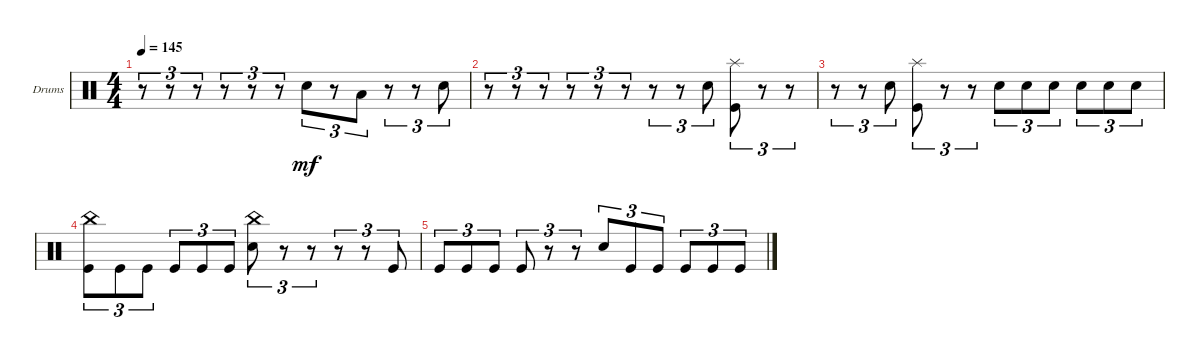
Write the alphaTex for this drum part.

\bracketExtendMode groupsimilarinstruments
\firstSystemTrackNameOrientation horizontal
\otherSystemsTrackNameOrientation horizontal
\track ("Drumkit" "Drums") {instrument percussion}
\staff {score}
\articulation defaults
\ts (4 4)
\tempo 145
\clef neutral
\ks c
r.8{tu (3 2) dy mf} r.8{tu (3 2)} r.8{tu (3 2)} r.8{tu (3 2)} r.8{tu (3 2)} r.8{tu (3 2)} "Snare (hit) 2".8{tu (3 2)} r.8{tu (3 2)} "Low Tom (hit)".8{tu (3 2)} r.8{tu (3 2)} r.8{tu (3 2)} "Snare (hit) 2".8{tu (3 2)} |
r.8{tu (3 2)} r.8{tu (3 2)} r.8{tu (3 2)} r.8{tu (3 2)} r.8{tu (3 2)} r.8{tu (3 2)} r.8{tu (3 2)} r.8{tu (3 2)} "Snare (hit) 2".8{tu (3 2)} ("Kick (hit)" "Splash (hit)").8{tu (3 2)} r.8{tu (3 2)} r.8{tu (3 2)} |
r.8{tu (3 2)} r.8{tu (3 2)} "Snare (hit) 2".8{tu (3 2)} ("Kick (hit)" "Splash (hit)").8{tu (3 2)} r.8{tu (3 2)} r.8{tu (3 2)} "Snare (hit) 2".8{tu (3 2)} "Snare (hit) 2".8{tu (3 2)} "Snare (hit) 2".8{tu (3 2)} "Snare (hit) 2".8{tu (3 2)} "Snare (hit) 2".8{tu (3 2)} "Snare (hit) 2".8{tu (3 2)} |
("Kick (hit)" "China (hit)").8{tu (3 2)} "Kick (hit)".8{tu (3 2)} "Kick (hit)".8{tu (3 2)} "Kick (hit)".8{tu (3 2)} "Kick (hit)".8{tu (3 2)} "Kick (hit)".8{tu (3 2)} ("Snare (hit) 2" "China (hit)").8{tu (3 2)} r.8{tu (3 2)} r.8{tu (3 2)} r.8{tu (3 2)} r.8{tu (3 2)} "Kick (hit)".8{tu (3 2)} |
"Kick (hit)".8{tu (3 2)} "Kick (hit)".8{tu (3 2)} "Kick (hit)".8{tu (3 2)} "Kick (hit)".8{tu (3 2)} r.8{tu (3 2)} r.8{tu (3 2)} "Snare (hit) 2".8{tu (3 2)} "Kick (hit)".8{tu (3 2)} "Kick (hit)".8{tu (3 2)} "Kick (hit)".8{tu (3 2)} "Kick (hit)".8{tu (3 2)} "Kick (hit)".8{tu (3 2)}
